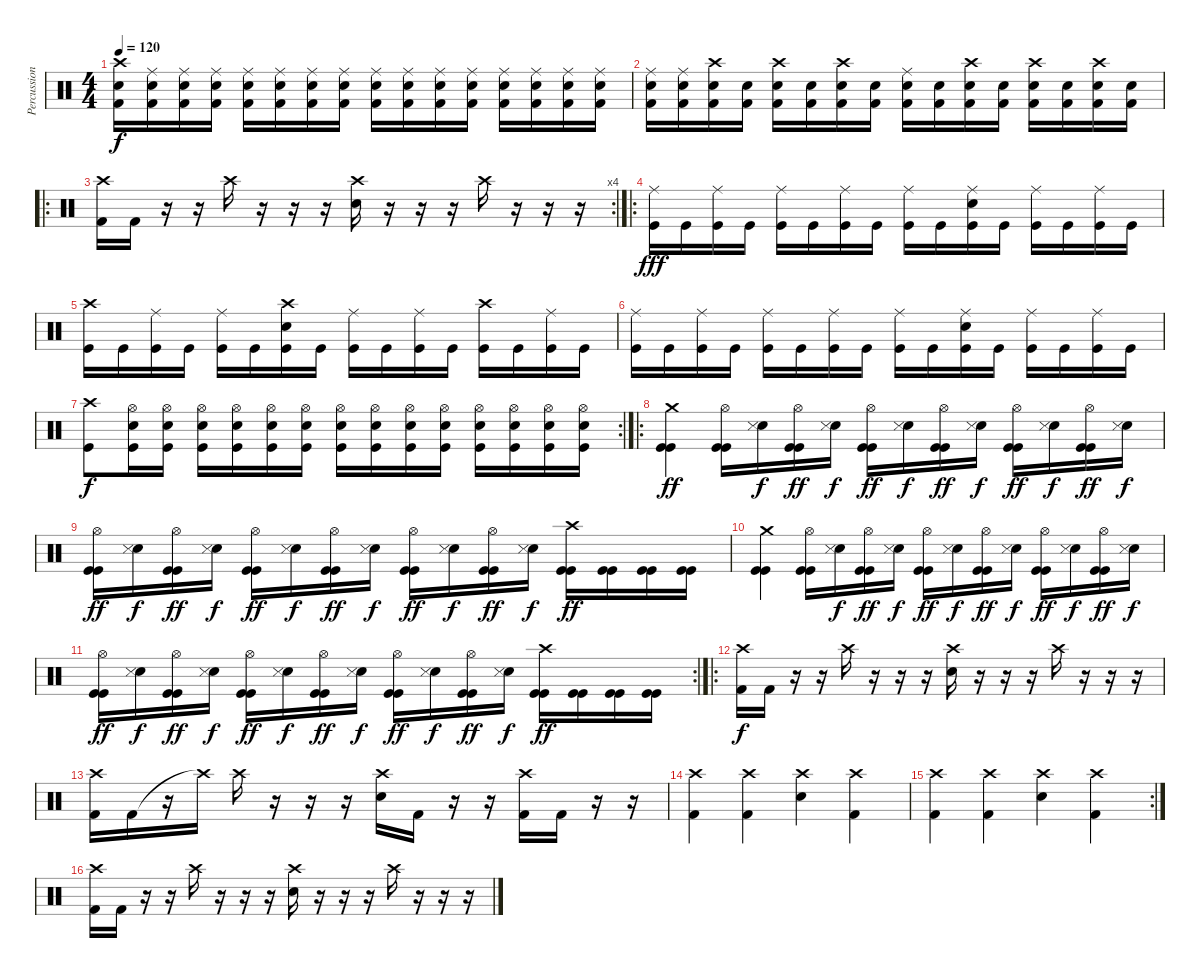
\track ("Percussions" "Percussion") {instrument percussion}
\staff {score}
\articulation defaults
\ts (4 4)
\tempo 120
\clef neutral
\ks c
("Crash high (hit)" "Snare (hit) 2" "Kick (hit) 2").16{dy f} ("Ride (middle)" "Snare (hit) 2" "Kick (hit) 2").16 ("Ride (middle)" "Snare (hit) 2" "Kick (hit) 2").16 ("Ride (middle)" "Snare (hit) 2" "Kick (hit) 2").16 ("Ride (middle)" "Snare (hit) 2" "Kick (hit) 2").16 ("Ride (middle)" "Snare (hit) 2" "Kick (hit) 2").16 ("Ride (middle)" "Snare (hit) 2" "Kick (hit) 2").16 ("Ride (middle)" "Snare (hit) 2" "Kick (hit) 2").16 ("Ride (middle)" "Snare (hit) 2" "Kick (hit) 2").16 ("Ride (middle)" "Snare (hit) 2" "Kick (hit) 2").16 ("Ride (middle)" "Snare (hit) 2" "Kick (hit) 2").16 ("Ride (middle)" "Snare (hit) 2" "Kick (hit) 2").16 ("Ride (middle)" "Snare (hit) 2" "Kick (hit) 2").16 ("Ride (middle)" "Snare (hit) 2" "Kick (hit) 2").16 ("Ride (middle)" "Snare (hit) 2" "Kick (hit) 2").16 ("Ride (middle)" "Snare (hit) 2" "Kick (hit) 2").16 |
("Ride (middle)" "Snare (hit) 2" "Kick (hit) 2").16 ("Ride (middle)" "Snare (hit) 2" "Kick (hit) 2").16 ("Crash high (hit)" "Snare (hit) 2" "Kick (hit) 2").16 ("Snare (hit) 2" "Kick (hit) 2").16 ("Crash high (hit)" "Snare (hit) 2" "Kick (hit) 2").16 ("Snare (hit) 2" "Kick (hit) 2").16 ("Crash high (hit)" "Snare (hit) 2" "Kick (hit) 2").16 ("Snare (hit) 2" "Kick (hit) 2").16 ("Ride (middle)" "Snare (hit) 2" "Kick (hit) 2").16 ("Snare (hit) 2" "Kick (hit) 2").16 ("Crash high (hit)" "Snare (hit) 2" "Kick (hit) 2").16 ("Snare (hit) 2" "Kick (hit) 2").16 ("Crash high (hit)" "Snare (hit) 2" "Kick (hit) 2").16 ("Snare (hit) 2" "Kick (hit) 2").16 ("Crash high (hit)" "Snare (hit) 2" "Kick (hit) 2").16 ("Snare (hit) 2" "Kick (hit) 2").16 |
\ro
\rc 4
("Crash high (hit)" "Kick (hit) 2").16 "Kick (hit) 2".16 r.16 r.16 "Crash high (hit)".16 r.16 r.16 r.16 ("Crash high (hit)" "Snare (hit) 2").16 r.16 r.16 r.16 "Crash high (hit)".16 r.16 r.16 r.16 |
\ro
("Ride (middle)" "Kick (hit)").16{dy fff} "Kick (hit)".16 ("Ride (middle)" "Kick (hit)").16 "Kick (hit)".16 ("Ride (middle)" "Kick (hit)").16 "Kick (hit)".16 ("Ride (middle)" "Kick (hit)").16 "Kick (hit)".16 ("Ride (middle)" "Kick (hit)").16 "Kick (hit)".16 ("Ride (middle)" "Electric Snare (hit)" "Kick (hit)").16 "Kick (hit)".16 ("Ride (middle)" "Kick (hit)").16 "Kick (hit)".16 ("Ride (middle)" "Kick (hit)").16 "Kick (hit)".16 |
("Crash high (hit)" "Kick (hit)").16 "Kick (hit)".16 ("Ride (middle)" "Kick (hit)").16 "Kick (hit)".16 ("Ride (middle)" "Kick (hit)").16 "Kick (hit)".16 ("Crash high (hit)" "Electric Snare (hit)" "Kick (hit)").16 "Kick (hit)".16 ("Ride (middle)" "Kick (hit)").16 "Kick (hit)".16 ("Ride (middle)" "Kick (hit)").16 "Kick (hit)".16 ("Crash high (hit)" "Kick (hit)").16 "Kick (hit)".16 ("Ride (middle)" "Kick (hit)").16 "Kick (hit)".16 |
("Ride (middle)" "Kick (hit)").16 "Kick (hit)".16 ("Ride (middle)" "Kick (hit)").16 "Kick (hit)".16 ("Ride (middle)" "Kick (hit)").16 "Kick (hit)".16 ("Ride (middle)" "Kick (hit)").16 "Kick (hit)".16 ("Ride (middle)" "Kick (hit)").16 "Kick (hit)".16 ("Ride (middle)" "Electric Snare (hit)" "Kick (hit)").16 "Kick (hit)".16 ("Ride (middle)" "Kick (hit)").16 "Kick (hit)".16 ("Ride (middle)" "Kick (hit)").16 "Kick (hit)".16 |
\rc 2
("Crash high (hit)" "Kick (hit)").8{dy f} ("Hi-Hat (open)" "Snare (hit) 2" "Kick (hit)").16 ("Hi-Hat (open)" "Snare (hit) 2" "Kick (hit)").16 ("Hi-Hat (open)" "Snare (hit) 2" "Kick (hit)").16 ("Hi-Hat (open)" "Snare (hit) 2" "Kick (hit)").16 ("Hi-Hat (open)" "Snare (hit) 2" "Kick (hit)").16 ("Hi-Hat (open)" "Snare (hit) 2" "Kick (hit)").16 ("Hi-Hat (open)" "Snare (hit) 2" "Kick (hit)").16 ("Hi-Hat (open)" "Snare (hit) 2" "Kick (hit)").16 ("Hi-Hat (open)" "Snare (hit) 2" "Kick (hit)").16 ("Hi-Hat (open)" "Snare (hit) 2" "Kick (hit)").16 ("Hi-Hat (open)" "Snare (hit) 2" "Kick (hit)").16 ("Hi-Hat (open)" "Snare (hit) 2" "Kick (hit)").16 ("Hi-Hat (open)" "Snare (hit) 2" "Kick (hit)").16 ("Hi-Hat (open)" "Snare (hit) 2" "Kick (hit)").16 |
\ro
("Crash medium (hit)" "Kick (hit)" "Kick (hit)").4{dy ff} ("Hi-Hat (open)" "Kick (hit)" "Kick (hit)").16 ("Electric Snare (hit)" "Snare (side stick) 3").16{dy f} ("Hi-Hat (open)" "Kick (hit)" "Kick (hit)").16{dy ff} ("Electric Snare (hit)" "Snare (side stick) 3").16{dy f} ("Hi-Hat (open)" "Kick (hit)" "Kick (hit)").16{dy ff} ("Electric Snare (hit)" "Snare (side stick) 3").16{dy f} ("Hi-Hat (open)" "Kick (hit)" "Kick (hit)").16{dy ff} ("Electric Snare (hit)" "Snare (side stick) 3").16{dy f} ("Hi-Hat (open)" "Kick (hit)" "Kick (hit)").16{dy ff} ("Electric Snare (hit)" "Snare (side stick) 3").16{dy f} ("Hi-Hat (open)" "Kick (hit)" "Kick (hit)").16{dy ff} ("Electric Snare (hit)" "Snare (side stick) 3").16{dy f} |
("Hi-Hat (open)" "Kick (hit)" "Kick (hit)").16{dy ff} ("Electric Snare (hit)" "Snare (side stick) 3").16{dy f} ("Hi-Hat (open)" "Kick (hit)" "Kick (hit)").16{dy ff} ("Electric Snare (hit)" "Snare (side stick) 3").16{dy f} ("Hi-Hat (open)" "Kick (hit)" "Kick (hit)").16{dy ff} ("Electric Snare (hit)" "Snare (side stick) 3").16{dy f} ("Hi-Hat (open)" "Kick (hit)" "Kick (hit)").16{dy ff} ("Electric Snare (hit)" "Snare (side stick) 3").16{dy f} ("Hi-Hat (open)" "Kick (hit)" "Kick (hit)").16{dy ff} ("Electric Snare (hit)" "Snare (side stick) 3").16{dy f} ("Hi-Hat (open)" "Kick (hit)" "Kick (hit)").16{dy ff} ("Electric Snare (hit)" "Snare (side stick) 3").16{dy f} ("Crash high (hit)" "Kick (hit)" "Kick (hit)").16{dy ff} ("Kick (hit)" "Kick (hit)").16 ("Kick (hit)" "Kick (hit)").16 ("Kick (hit)" "Kick (hit)").16 |
("Crash medium (hit)" "Kick (hit)" "Kick (hit)").4 ("Hi-Hat (open)" "Kick (hit)" "Kick (hit)").16 ("Electric Snare (hit)" "Snare (side stick) 3").16{dy f} ("Hi-Hat (open)" "Kick (hit)" "Kick (hit)").16{dy ff} ("Electric Snare (hit)" "Snare (side stick) 3").16{dy f} ("Hi-Hat (open)" "Kick (hit)" "Kick (hit)").16{dy ff} ("Electric Snare (hit)" "Snare (side stick) 3").16{dy f} ("Hi-Hat (open)" "Kick (hit)" "Kick (hit)").16{dy ff} ("Electric Snare (hit)" "Snare (side stick) 3").16{dy f} ("Hi-Hat (open)" "Kick (hit)" "Kick (hit)").16{dy ff} ("Electric Snare (hit)" "Snare (side stick) 3").16{dy f} ("Hi-Hat (open)" "Kick (hit)" "Kick (hit)").16{dy ff} ("Electric Snare (hit)" "Snare (side stick) 3").16{dy f} |
\rc 2
("Hi-Hat (open)" "Kick (hit)" "Kick (hit)").16{dy ff} ("Electric Snare (hit)" "Snare (side stick) 3").16{dy f} ("Hi-Hat (open)" "Kick (hit)" "Kick (hit)").16{dy ff} ("Electric Snare (hit)" "Snare (side stick) 3").16{dy f} ("Hi-Hat (open)" "Kick (hit)" "Kick (hit)").16{dy ff} ("Electric Snare (hit)" "Snare (side stick) 3").16{dy f} ("Hi-Hat (open)" "Kick (hit)" "Kick (hit)").16{dy ff} ("Electric Snare (hit)" "Snare (side stick) 3").16{dy f} ("Hi-Hat (open)" "Kick (hit)" "Kick (hit)").16{dy ff} ("Electric Snare (hit)" "Snare (side stick) 3").16{dy f} ("Hi-Hat (open)" "Kick (hit)" "Kick (hit)").16{dy ff} ("Electric Snare (hit)" "Snare (side stick) 3").16{dy f} ("Crash high (hit)" "Kick (hit)" "Kick (hit)").16{dy ff} ("Kick (hit)" "Kick (hit)").16 ("Kick (hit)" "Kick (hit)").16 ("Kick (hit)" "Kick (hit)").16 |
\ro
("Crash high (hit)" "Kick (hit) 2").16{dy f} "Kick (hit) 2".16 r.16 r.16 "Crash high (hit)".16 r.16 r.16 r.16 ("Crash high (hit)" "Snare (hit) 2").16 r.16 r.16 r.16 "Crash high (hit)".16 r.16 r.16 r.16 |
("Crash high (hit)" "Kick (hit) 2").16 "Kick (hit) 2".16 r.16 "Crash high (hit)"{t}.16 "Crash high (hit)".16 r.16 r.16 r.16 ("Crash high (hit)" "Snare (hit) 2").16 "Kick (hit) 2".16 r.16 r.16 ("Crash high (hit)" "Kick (hit) 2").16 "Kick (hit) 2".16 r.16 r.16 |
("Crash high (hit)" "Kick (hit) 2").4 ("Crash high (hit)" "Kick (hit) 2").4 ("Crash high (hit)" "Electric Snare (hit)").4 ("Crash high (hit)" "Kick (hit) 2").4 |
\rc 2
("Crash high (hit)" "Kick (hit) 2").4 ("Crash high (hit)" "Kick (hit) 2").4 ("Crash high (hit)" "Electric Snare (hit)").4 ("Crash high (hit)" "Kick (hit) 2").4 |
("Crash high (hit)" "Kick (hit) 2").16{volume 8} "Kick (hit) 2".16 r.16 r.16 "Crash high (hit)".16 r.16 r.16 r.16 ("Crash high (hit)" "Snare (hit) 2").16 r.16 r.16 r.16 "Crash high (hit)".16 r.16 r.16 r.16
